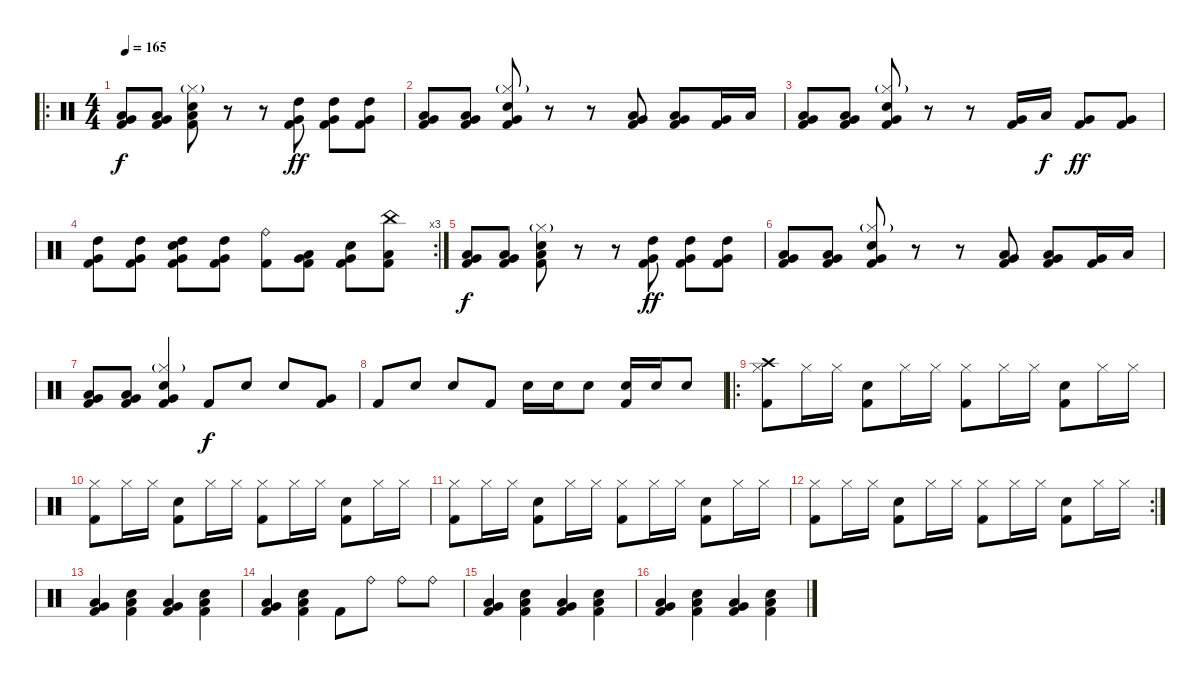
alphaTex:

\track "" {instrument percussion}
\staff {score}
\articulation defaults
\ro
\ts (4 4)
\tempo 165
\clef neutral
\ks c
("Low Tom (hit)" "Very Low Tom (hit)" "Kick (hit) 2").8{dy f} ("Low Tom (hit)" "Very Low Tom (hit)" "Kick (hit) 2").8 ("Low Tom (hit)" "Hi-Hat (closed)"{g} "Electric Snare (hit)" "Kick (hit) 2").8 r.8 r.8 ("High Tom (hit)" "Very Low Tom (hit)" "Kick (hit) 2").8{dy ff} ("High Tom (hit)" "Very Low Tom (hit)" "Kick (hit) 2").8 ("High Tom (hit)" "Very Low Tom (hit)" "Kick (hit) 2").8 |
("Low Tom (hit)" "Very Low Tom (hit)" "Kick (hit) 2").8 ("Low Tom (hit)" "Very Low Tom (hit)" "Kick (hit) 2").8 ("Very Low Tom (hit)" "Hi-Hat (closed)"{g} "Electric Snare (hit)" "Kick (hit) 2").8 r.8 r.8 ("Low Tom (hit)" "Very Low Tom (hit)" "Kick (hit) 2").8 ("Low Tom (hit)" "Very Low Tom (hit)" "Kick (hit) 2").8 ("Very Low Tom (hit)" "Kick (hit) 2").16 "Low Tom (hit)".16 |
("Low Tom (hit)" "Very Low Tom (hit)" "Kick (hit) 2").8 ("Low Tom (hit)" "Very Low Tom (hit)" "Kick (hit) 2").8 ("Very Low Tom (hit)" "Hi-Hat (closed)"{g} "Electric Snare (hit)" "Kick (hit) 2").8 r.8 r.8 ("Very Low Tom (hit)" "Kick (hit) 2").16 "Low Tom (hit)".16{dy f} ("Very Low Tom (hit)" "Kick (hit) 2").8{dy ff} ("Very Low Tom (hit)" "Kick (hit) 2").8 |
\rc 3
("High Tom (hit)" "Very Low Tom (hit)" "Kick (hit) 2").8 ("High Tom (hit)" "Very Low Tom (hit)" "Kick (hit) 2").8 ("High Tom (hit)" "Very Low Tom (hit)" "Electric Snare (hit)" "Kick (hit) 2").8 ("High Tom (hit)" "Very Low Tom (hit)" "Kick (hit) 2").8 ("Ride (bell)" "Kick (hit) 2").8 ("Low Tom (hit)" "Very Low Tom (hit)" "Kick (hit) 2").8 ("Very Low Tom (hit)" "Electric Snare (hit)" "Kick (hit) 2").8 ("Low Tom (hit)" "China (hit)" "Kick (hit) 2").8 |
("Low Tom (hit)" "Very Low Tom (hit)" "Kick (hit) 2").8{dy f} ("Low Tom (hit)" "Very Low Tom (hit)" "Kick (hit) 2").8 ("Low Tom (hit)" "Hi-Hat (closed)"{g} "Electric Snare (hit)" "Kick (hit) 2").8 r.8 r.8 ("High Tom (hit)" "Very Low Tom (hit)" "Kick (hit) 2").8{dy ff} ("High Tom (hit)" "Very Low Tom (hit)" "Kick (hit) 2").8 ("High Tom (hit)" "Very Low Tom (hit)" "Kick (hit) 2").8 |
("Low Tom (hit)" "Very Low Tom (hit)" "Kick (hit) 2").8 ("Low Tom (hit)" "Very Low Tom (hit)" "Kick (hit) 2").8 ("Very Low Tom (hit)" "Hi-Hat (closed)"{g} "Electric Snare (hit)" "Kick (hit) 2").8 r.8 r.8 ("Low Tom (hit)" "Very Low Tom (hit)" "Kick (hit) 2").8 ("Low Tom (hit)" "Very Low Tom (hit)" "Kick (hit) 2").8 ("Very Low Tom (hit)" "Kick (hit) 2").16 "Low Tom (hit)".16 |
("Low Tom (hit)" "Very Low Tom (hit)" "Kick (hit) 2").8 ("Low Tom (hit)" "Very Low Tom (hit)" "Kick (hit) 2").8 ("Very Low Tom (hit)" "Hi-Hat (closed)"{g} "Electric Snare (hit)" "Kick (hit) 2").4 "Kick (hit) 2".8{dy f} "Electric Snare (hit)".8 "Electric Snare (hit)".8 ("Very Low Tom (hit)" "Kick (hit) 2").8 |
"Kick (hit) 2".8 "Electric Snare (hit)".8 "Electric Snare (hit)".8 "Kick (hit) 2".8 "Electric Snare (hit)".16 "Electric Snare (hit)".16 "Electric Snare (hit)".8 ("Electric Snare (hit)" "Kick (hit) 2").16 "Electric Snare (hit)".16 "Electric Snare (hit)".8 |
\ro
("Crash high (hit)" "Hi-Hat (closed)" "Kick (hit) 2").8 "Hi-Hat (closed)".16 "Hi-Hat (closed)".16 ("Electric Snare (hit)" "Kick (hit) 2").8 "Hi-Hat (closed)".16 "Hi-Hat (closed)".16 ("Hi-Hat (closed)" "Kick (hit) 2").8 "Hi-Hat (closed)".16 "Hi-Hat (closed)".16 ("Electric Snare (hit)" "Kick (hit) 2").8 "Hi-Hat (closed)".16 "Hi-Hat (closed)".16 |
("Hi-Hat (closed)" "Kick (hit) 2").8 "Hi-Hat (closed)".16 "Hi-Hat (closed)".16 ("Electric Snare (hit)" "Kick (hit) 2").8 "Hi-Hat (closed)".16 "Hi-Hat (closed)".16 ("Hi-Hat (closed)" "Kick (hit) 2").8 "Hi-Hat (closed)".16 "Hi-Hat (closed)".16 ("Electric Snare (hit)" "Kick (hit) 2").8 "Hi-Hat (closed)".16 "Hi-Hat (closed)".16 |
("Hi-Hat (closed)" "Kick (hit) 2").8 "Hi-Hat (closed)".16 "Hi-Hat (closed)".16 ("Electric Snare (hit)" "Kick (hit) 2").8 "Hi-Hat (closed)".16 "Hi-Hat (closed)".16 ("Hi-Hat (closed)" "Kick (hit) 2").8 "Hi-Hat (closed)".16 "Hi-Hat (closed)".16 ("Electric Snare (hit)" "Kick (hit) 2").8 "Hi-Hat (closed)".16 "Hi-Hat (closed)".16 |
\rc 2
("Hi-Hat (closed)" "Kick (hit) 2").8 "Hi-Hat (closed)".16 "Hi-Hat (closed)".16 ("Electric Snare (hit)" "Kick (hit) 2").8 "Hi-Hat (closed)".16 "Hi-Hat (closed)".16 ("Hi-Hat (closed)" "Kick (hit) 2").8 "Hi-Hat (closed)".16 "Hi-Hat (closed)".16 ("Electric Snare (hit)" "Kick (hit) 2").8 "Hi-Hat (closed)".16 "Hi-Hat (closed)".16 |
("Low Tom (hit)" "Very Low Tom (hit)" "Kick (hit) 2").4 ("Low Tom (hit)" "Electric Snare (hit)" "Kick (hit) 2").4 ("Low Tom (hit)" "Very Low Tom (hit)" "Kick (hit) 2").4 ("Low Tom (hit)" "Electric Snare (hit)" "Kick (hit) 2").4 |
("Low Tom (hit)" "Very Low Tom (hit)" "Kick (hit) 2").4 ("Low Tom (hit)" "Electric Snare (hit)" "Kick (hit) 2").4 "Kick (hit) 2".8 "Ride (bell)".8 "Ride (bell)".8 "Ride (bell)".8 |
("Low Tom (hit)" "Very Low Tom (hit)" "Kick (hit) 2").4 ("Low Tom (hit)" "Electric Snare (hit)" "Kick (hit) 2").4 ("Low Tom (hit)" "Very Low Tom (hit)" "Kick (hit) 2").4 ("Low Tom (hit)" "Electric Snare (hit)" "Kick (hit) 2").4 |
("Low Tom (hit)" "Very Low Tom (hit)" "Kick (hit) 2").4 ("Low Tom (hit)" "Electric Snare (hit)" "Kick (hit) 2").4 ("Low Tom (hit)" "Very Low Tom (hit)" "Kick (hit) 2").4 ("Low Tom (hit)" "Electric Snare (hit)" "Kick (hit) 2").4
